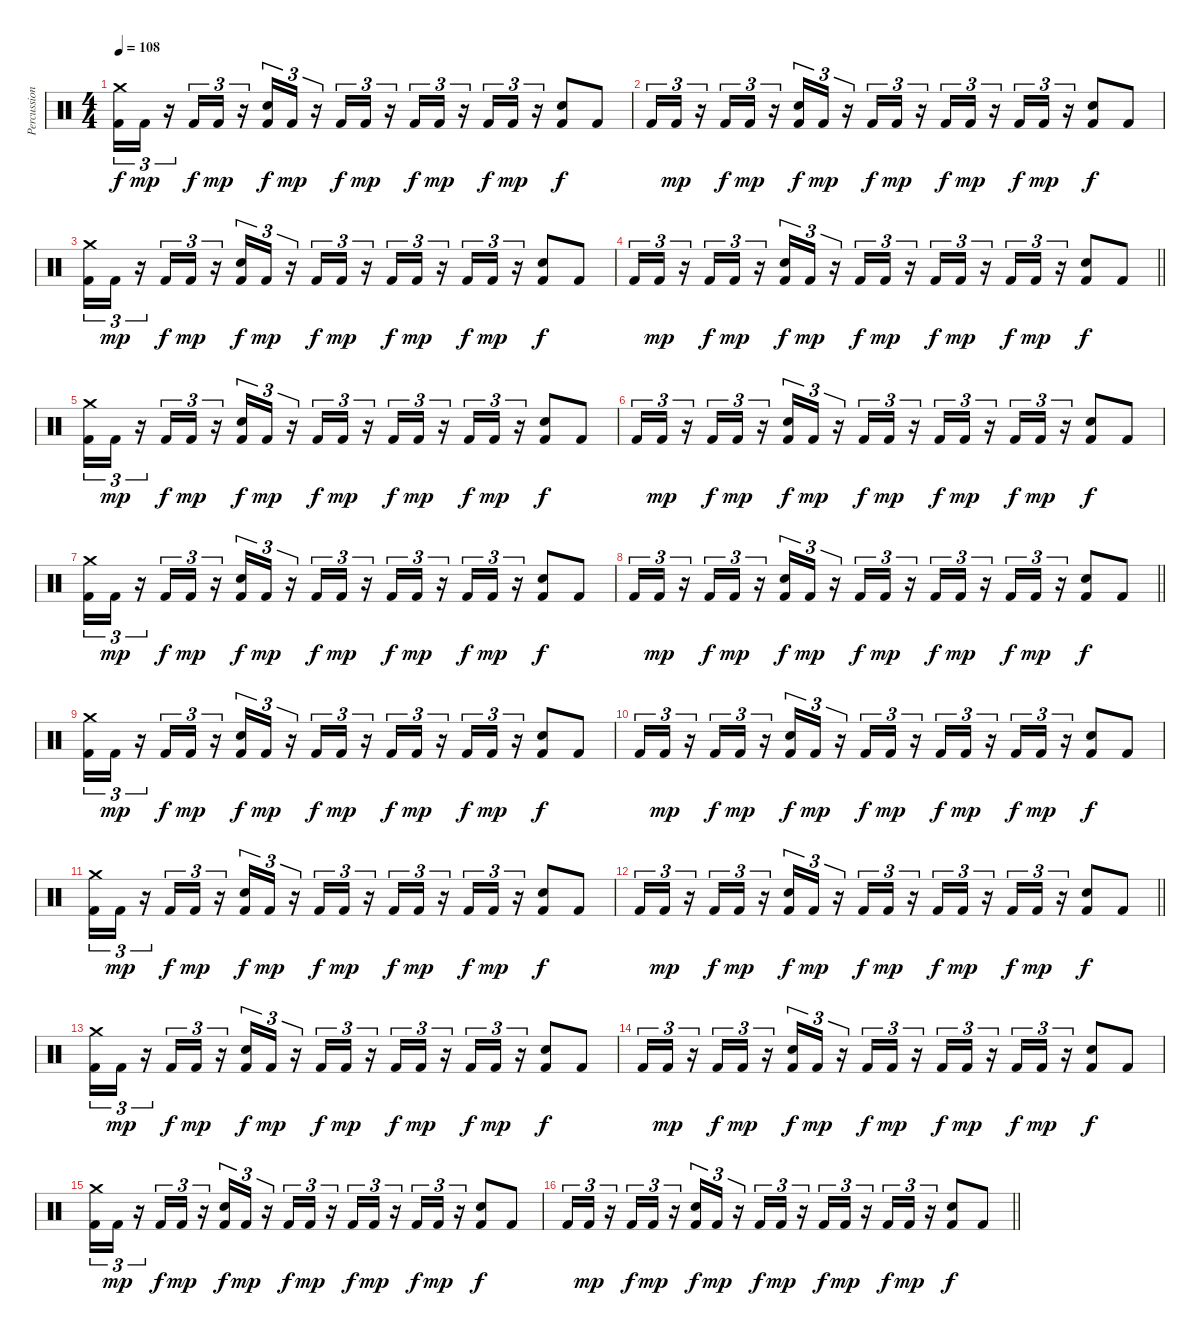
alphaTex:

\track ("Percussion" "Percussion") {instrument percussion}
\staff {score}
\articulation defaults
\ts (4 4)
\tempo 108
\clef neutral
\ks c
("Crash medium (hit)" "Kick (hit) 2").16{tu (3 2) dy f} "Kick (hit) 2".16{tu (3 2) dy mp} r.16{tu (3 2)} "Kick (hit) 2".16{tu (3 2) dy f} "Kick (hit) 2".16{tu (3 2) dy mp} r.16{tu (3 2)} ("Electric Snare (hit)" "Kick (hit) 2").16{tu (3 2) dy f} "Kick (hit) 2".16{tu (3 2) dy mp} r.16{tu (3 2)} "Kick (hit) 2".16{tu (3 2) dy f} "Kick (hit) 2".16{tu (3 2) dy mp} r.16{tu (3 2)} "Kick (hit) 2".16{tu (3 2) dy f} "Kick (hit) 2".16{tu (3 2) dy mp} r.16{tu (3 2)} "Kick (hit) 2".16{tu (3 2) dy f} "Kick (hit) 2".16{tu (3 2) dy mp} r.16{tu (3 2)} ("Electric Snare (hit)" "Kick (hit) 2").8{dy f} "Kick (hit) 2".8 |
"Kick (hit) 2".16{tu (3 2)} "Kick (hit) 2".16{tu (3 2) dy mp} r.16{tu (3 2)} "Kick (hit) 2".16{tu (3 2) dy f} "Kick (hit) 2".16{tu (3 2) dy mp} r.16{tu (3 2)} ("Electric Snare (hit)" "Kick (hit) 2").16{tu (3 2) dy f} "Kick (hit) 2".16{tu (3 2) dy mp} r.16{tu (3 2)} "Kick (hit) 2".16{tu (3 2) dy f} "Kick (hit) 2".16{tu (3 2) dy mp} r.16{tu (3 2)} "Kick (hit) 2".16{tu (3 2) dy f} "Kick (hit) 2".16{tu (3 2) dy mp} r.16{tu (3 2)} "Kick (hit) 2".16{tu (3 2) dy f} "Kick (hit) 2".16{tu (3 2) dy mp} r.16{tu (3 2)} ("Electric Snare (hit)" "Kick (hit) 2").8{dy f} "Kick (hit) 2".8 |
("Crash medium (hit)" "Kick (hit) 2").16{tu (3 2)} "Kick (hit) 2".16{tu (3 2) dy mp} r.16{tu (3 2)} "Kick (hit) 2".16{tu (3 2) dy f} "Kick (hit) 2".16{tu (3 2) dy mp} r.16{tu (3 2)} ("Electric Snare (hit)" "Kick (hit) 2").16{tu (3 2) dy f} "Kick (hit) 2".16{tu (3 2) dy mp} r.16{tu (3 2)} "Kick (hit) 2".16{tu (3 2) dy f} "Kick (hit) 2".16{tu (3 2) dy mp} r.16{tu (3 2)} "Kick (hit) 2".16{tu (3 2) dy f} "Kick (hit) 2".16{tu (3 2) dy mp} r.16{tu (3 2)} "Kick (hit) 2".16{tu (3 2) dy f} "Kick (hit) 2".16{tu (3 2) dy mp} r.16{tu (3 2)} ("Electric Snare (hit)" "Kick (hit) 2").8{dy f} "Kick (hit) 2".8 |
\barLineRight lightlight "Kick (hit) 2".16{tu (3 2)} "Kick (hit) 2".16{tu (3 2) dy mp}
r.16{tu (3 2)} "Kick (hit) 2".16{tu (3 2) dy f} "Kick (hit) 2".16{tu (3 2) dy mp} r.16{tu (3 2)} ("Electric Snare (hit)" "Kick (hit) 2").16{tu (3 2) dy f} "Kick (hit) 2".16{tu (3 2) dy mp} r.16{tu (3 2)} "Kick (hit) 2".16{tu (3 2) dy f} "Kick (hit) 2".16{tu (3 2) dy mp} r.16{tu (3 2)} "Kick (hit) 2".16{tu (3 2) dy f} "Kick (hit) 2".16{tu (3 2) dy mp} r.16{tu (3 2)} "Kick (hit) 2".16{tu (3 2) dy f} "Kick (hit) 2".16{tu (3 2) dy mp} r.16{tu (3 2)} ("Electric Snare (hit)" "Kick (hit) 2").8{dy f} "Kick (hit) 2".8 |
\section ("" "")
("Crash medium (hit)" "Kick (hit) 2").16{tu (3 2)} "Kick (hit) 2".16{tu (3 2) dy mp} r.16{tu (3 2)} "Kick (hit) 2".16{tu (3 2) dy f} "Kick (hit) 2".16{tu (3 2) dy mp} r.16{tu (3 2)} ("Electric Snare (hit)" "Kick (hit) 2").16{tu (3 2) dy f} "Kick (hit) 2".16{tu (3 2) dy mp} r.16{tu (3 2)} "Kick (hit) 2".16{tu (3 2) dy f} "Kick (hit) 2".16{tu (3 2) dy mp} r.16{tu (3 2)} "Kick (hit) 2".16{tu (3 2) dy f} "Kick (hit) 2".16{tu (3 2) dy mp} r.16{tu (3 2)} "Kick (hit) 2".16{tu (3 2) dy f} "Kick (hit) 2".16{tu (3 2) dy mp} r.16{tu (3 2)} ("Electric Snare (hit)" "Kick (hit) 2").8{dy f} "Kick (hit) 2".8 |
"Kick (hit) 2".16{tu (3 2)} "Kick (hit) 2".16{tu (3 2) dy mp} r.16{tu (3 2)} "Kick (hit) 2".16{tu (3 2) dy f} "Kick (hit) 2".16{tu (3 2) dy mp} r.16{tu (3 2)} ("Electric Snare (hit)" "Kick (hit) 2").16{tu (3 2) dy f} "Kick (hit) 2".16{tu (3 2) dy mp} r.16{tu (3 2)} "Kick (hit) 2".16{tu (3 2) dy f} "Kick (hit) 2".16{tu (3 2) dy mp} r.16{tu (3 2)} "Kick (hit) 2".16{tu (3 2) dy f} "Kick (hit) 2".16{tu (3 2) dy mp} r.16{tu (3 2)} "Kick (hit) 2".16{tu (3 2) dy f} "Kick (hit) 2".16{tu (3 2) dy mp} r.16{tu (3 2)} ("Electric Snare (hit)" "Kick (hit) 2").8{dy f} "Kick (hit) 2".8 |
("Crash medium (hit)" "Kick (hit) 2").16{tu (3 2)} "Kick (hit) 2".16{tu (3 2) dy mp} r.16{tu (3 2)} "Kick (hit) 2".16{tu (3 2) dy f} "Kick (hit) 2".16{tu (3 2) dy mp} r.16{tu (3 2)} ("Electric Snare (hit)" "Kick (hit) 2").16{tu (3 2) dy f} "Kick (hit) 2".16{tu (3 2) dy mp} r.16{tu (3 2)} "Kick (hit) 2".16{tu (3 2) dy f} "Kick (hit) 2".16{tu (3 2) dy mp} r.16{tu (3 2)} "Kick (hit) 2".16{tu (3 2) dy f} "Kick (hit) 2".16{tu (3 2) dy mp} r.16{tu (3 2)} "Kick (hit) 2".16{tu (3 2) dy f} "Kick (hit) 2".16{tu (3 2) dy mp} r.16{tu (3 2)} ("Electric Snare (hit)" "Kick (hit) 2").8{dy f} "Kick (hit) 2".8 |
\barLineRight lightlight "Kick (hit) 2".16{tu (3 2)} "Kick (hit) 2".16{tu (3 2) dy mp}
r.16{tu (3 2)} "Kick (hit) 2".16{tu (3 2) dy f} "Kick (hit) 2".16{tu (3 2) dy mp} r.16{tu (3 2)} ("Electric Snare (hit)" "Kick (hit) 2").16{tu (3 2) dy f} "Kick (hit) 2".16{tu (3 2) dy mp} r.16{tu (3 2)} "Kick (hit) 2".16{tu (3 2) dy f} "Kick (hit) 2".16{tu (3 2) dy mp} r.16{tu (3 2)} "Kick (hit) 2".16{tu (3 2) dy f} "Kick (hit) 2".16{tu (3 2) dy mp} r.16{tu (3 2)} "Kick (hit) 2".16{tu (3 2) dy f} "Kick (hit) 2".16{tu (3 2) dy mp} r.16{tu (3 2)} ("Electric Snare (hit)" "Kick (hit) 2").8{dy f} "Kick (hit) 2".8 |
("Crash medium (hit)" "Kick (hit) 2").16{tu (3 2)} "Kick (hit) 2".16{tu (3 2) dy mp} r.16{tu (3 2)} "Kick (hit) 2".16{tu (3 2) dy f} "Kick (hit) 2".16{tu (3 2) dy mp} r.16{tu (3 2)} ("Electric Snare (hit)" "Kick (hit) 2").16{tu (3 2) dy f} "Kick (hit) 2".16{tu (3 2) dy mp} r.16{tu (3 2)} "Kick (hit) 2".16{tu (3 2) dy f} "Kick (hit) 2".16{tu (3 2) dy mp} r.16{tu (3 2)} "Kick (hit) 2".16{tu (3 2) dy f} "Kick (hit) 2".16{tu (3 2) dy mp} r.16{tu (3 2)} "Kick (hit) 2".16{tu (3 2) dy f} "Kick (hit) 2".16{tu (3 2) dy mp} r.16{tu (3 2)} ("Electric Snare (hit)" "Kick (hit) 2").8{dy f} "Kick (hit) 2".8 |
"Kick (hit) 2".16{tu (3 2)} "Kick (hit) 2".16{tu (3 2) dy mp} r.16{tu (3 2)} "Kick (hit) 2".16{tu (3 2) dy f} "Kick (hit) 2".16{tu (3 2) dy mp} r.16{tu (3 2)} ("Electric Snare (hit)" "Kick (hit) 2").16{tu (3 2) dy f} "Kick (hit) 2".16{tu (3 2) dy mp} r.16{tu (3 2)} "Kick (hit) 2".16{tu (3 2) dy f} "Kick (hit) 2".16{tu (3 2) dy mp} r.16{tu (3 2)} "Kick (hit) 2".16{tu (3 2) dy f} "Kick (hit) 2".16{tu (3 2) dy mp} r.16{tu (3 2)} "Kick (hit) 2".16{tu (3 2) dy f} "Kick (hit) 2".16{tu (3 2) dy mp} r.16{tu (3 2)} ("Electric Snare (hit)" "Kick (hit) 2").8{dy f} "Kick (hit) 2".8 |
("Crash medium (hit)" "Kick (hit) 2").16{tu (3 2)} "Kick (hit) 2".16{tu (3 2) dy mp} r.16{tu (3 2)} "Kick (hit) 2".16{tu (3 2) dy f} "Kick (hit) 2".16{tu (3 2) dy mp} r.16{tu (3 2)} ("Electric Snare (hit)" "Kick (hit) 2").16{tu (3 2) dy f} "Kick (hit) 2".16{tu (3 2) dy mp} r.16{tu (3 2)} "Kick (hit) 2".16{tu (3 2) dy f} "Kick (hit) 2".16{tu (3 2) dy mp} r.16{tu (3 2)} "Kick (hit) 2".16{tu (3 2) dy f} "Kick (hit) 2".16{tu (3 2) dy mp} r.16{tu (3 2)} "Kick (hit) 2".16{tu (3 2) dy f} "Kick (hit) 2".16{tu (3 2) dy mp} r.16{tu (3 2)} ("Electric Snare (hit)" "Kick (hit) 2").8{dy f} "Kick (hit) 2".8 |
\barLineRight lightlight "Kick (hit) 2".16{tu (3 2)} "Kick (hit) 2".16{tu (3 2) dy mp}
r.16{tu (3 2)} "Kick (hit) 2".16{tu (3 2) dy f} "Kick (hit) 2".16{tu (3 2) dy mp} r.16{tu (3 2)} ("Electric Snare (hit)" "Kick (hit) 2").16{tu (3 2) dy f} "Kick (hit) 2".16{tu (3 2) dy mp} r.16{tu (3 2)} "Kick (hit) 2".16{tu (3 2) dy f} "Kick (hit) 2".16{tu (3 2) dy mp} r.16{tu (3 2)} "Kick (hit) 2".16{tu (3 2) dy f} "Kick (hit) 2".16{tu (3 2) dy mp} r.16{tu (3 2)} "Kick (hit) 2".16{tu (3 2) dy f} "Kick (hit) 2".16{tu (3 2) dy mp} r.16{tu (3 2)} ("Electric Snare (hit)" "Kick (hit) 2").8{dy f} "Kick (hit) 2".8 |
("Crash medium (hit)" "Kick (hit) 2").16{tu (3 2)} "Kick (hit) 2".16{tu (3 2) dy mp} r.16{tu (3 2)} "Kick (hit) 2".16{tu (3 2) dy f} "Kick (hit) 2".16{tu (3 2) dy mp} r.16{tu (3 2)} ("Electric Snare (hit)" "Kick (hit) 2").16{tu (3 2) dy f} "Kick (hit) 2".16{tu (3 2) dy mp} r.16{tu (3 2)} "Kick (hit) 2".16{tu (3 2) dy f} "Kick (hit) 2".16{tu (3 2) dy mp} r.16{tu (3 2)} "Kick (hit) 2".16{tu (3 2) dy f} "Kick (hit) 2".16{tu (3 2) dy mp} r.16{tu (3 2)} "Kick (hit) 2".16{tu (3 2) dy f} "Kick (hit) 2".16{tu (3 2) dy mp} r.16{tu (3 2)} ("Electric Snare (hit)" "Kick (hit) 2").8{dy f} "Kick (hit) 2".8 |
"Kick (hit) 2".16{tu (3 2)} "Kick (hit) 2".16{tu (3 2) dy mp} r.16{tu (3 2)} "Kick (hit) 2".16{tu (3 2) dy f} "Kick (hit) 2".16{tu (3 2) dy mp} r.16{tu (3 2)} ("Electric Snare (hit)" "Kick (hit) 2").16{tu (3 2) dy f} "Kick (hit) 2".16{tu (3 2) dy mp} r.16{tu (3 2)} "Kick (hit) 2".16{tu (3 2) dy f} "Kick (hit) 2".16{tu (3 2) dy mp} r.16{tu (3 2)} "Kick (hit) 2".16{tu (3 2) dy f} "Kick (hit) 2".16{tu (3 2) dy mp} r.16{tu (3 2)} "Kick (hit) 2".16{tu (3 2) dy f} "Kick (hit) 2".16{tu (3 2) dy mp} r.16{tu (3 2)} ("Electric Snare (hit)" "Kick (hit) 2").8{dy f} "Kick (hit) 2".8 |
("Crash medium (hit)" "Kick (hit) 2").16{tu (3 2)} "Kick (hit) 2".16{tu (3 2) dy mp} r.16{tu (3 2)} "Kick (hit) 2".16{tu (3 2) dy f} "Kick (hit) 2".16{tu (3 2) dy mp} r.16{tu (3 2)} ("Electric Snare (hit)" "Kick (hit) 2").16{tu (3 2) dy f} "Kick (hit) 2".16{tu (3 2) dy mp} r.16{tu (3 2)} "Kick (hit) 2".16{tu (3 2) dy f} "Kick (hit) 2".16{tu (3 2) dy mp} r.16{tu (3 2)} "Kick (hit) 2".16{tu (3 2) dy f} "Kick (hit) 2".16{tu (3 2) dy mp} r.16{tu (3 2)} "Kick (hit) 2".16{tu (3 2) dy f} "Kick (hit) 2".16{tu (3 2) dy mp} r.16{tu (3 2)} ("Electric Snare (hit)" "Kick (hit) 2").8{dy f} "Kick (hit) 2".8 |
\barLineRight lightlight "Kick (hit) 2".16{tu (3 2)} "Kick (hit) 2".16{tu (3 2) dy mp}
r.16{tu (3 2)} "Kick (hit) 2".16{tu (3 2) dy f} "Kick (hit) 2".16{tu (3 2) dy mp} r.16{tu (3 2)} ("Electric Snare (hit)" "Kick (hit) 2").16{tu (3 2) dy f} "Kick (hit) 2".16{tu (3 2) dy mp} r.16{tu (3 2)} "Kick (hit) 2".16{tu (3 2) dy f} "Kick (hit) 2".16{tu (3 2) dy mp} r.16{tu (3 2)} "Kick (hit) 2".16{tu (3 2) dy f} "Kick (hit) 2".16{tu (3 2) dy mp} r.16{tu (3 2)} "Kick (hit) 2".16{tu (3 2) dy f} "Kick (hit) 2".16{tu (3 2) dy mp} r.16{tu (3 2)} ("Electric Snare (hit)" "Kick (hit) 2").8{dy f} "Kick (hit) 2".8
